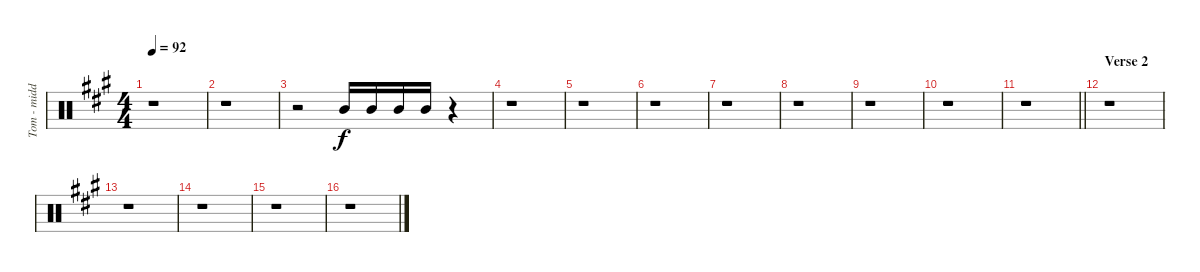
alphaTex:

\track ("Tom - middle" "Tom - midd") {instrument percussion}
\staff {score}
\articulation defaults
\ts (4 4)
\tempo 92
\clef neutral
\ks f#minor
r.1{dy f} |
r.1 |
r.2 "Mid Tom (hit)".16{beam Up} "Mid Tom (hit)".16{beam Up} "Mid Tom (hit)".16{beam Up} "Mid Tom (hit)".16{beam Up} r.4 |
r.1 |
r.1 |
r.1 |
r.1 |
r.1 |
r.1 |
r.1 |
\barLineRight lightlight
r.1 |
\section ("" "Verse 2")
r.1 |
r.1 |
r.1 |
r.1 |
r.1
